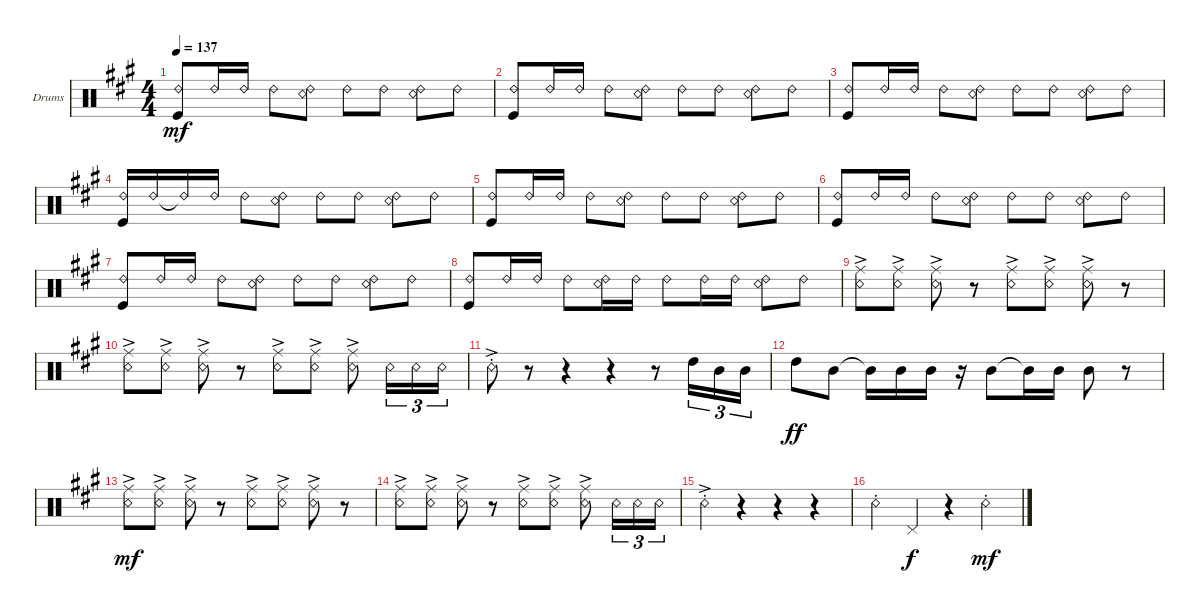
\defaultSystemsLayout 4
\bracketExtendMode groupsimilarinstruments
\firstSystemTrackNameOrientation horizontal
\otherSystemsTrackNameOrientation horizontal
\track ("Drums" "Drums") {instrument percussion}
\staff {score}
\articulation defaults
\ts (4 4)
\tempo 137
\clef neutral
\scale
0.333333
\ks a
("Kick (hit)" "Ride (bell) 2").8{dy mf} "Ride (bell) 2".16 "Ride (bell) 2".16 "Ride (bell) 2".8 ("Snare (rim shot)" "Ride (bell) 2").8 "Ride (bell) 2".8 "Ride (bell) 2".8 ("Snare (rim shot)" "Ride (bell) 2").8 "Ride (bell) 2".8 |
\scale
0.333333 ("Kick (hit)" "Ride (bell) 2").8 "Ride (bell) 2".16 "Ride (bell) 2".16 "Ride (bell) 2".8 ("Snare (rim shot)" "Ride (bell) 2").8 "Ride (bell) 2".8 "Ride (bell) 2".8 ("Snare (rim shot)" "Ride (bell) 2").8 "Ride (bell) 2".8 |
\scale
0.333333 ("Kick (hit)" "Ride (bell) 2").8 "Ride (bell) 2".16 "Ride (bell) 2".16 "Ride (bell) 2".8 ("Snare (rim shot)" "Ride (bell) 2").8 "Ride (bell) 2".8 "Ride (bell) 2".8 ("Snare (rim shot)" "Ride (bell) 2").8 "Ride (bell) 2".8 |
\scale
0.333333 ("Kick (hit)" "Ride (bell) 2").16 "Ride (bell) 2".16 "Ride (bell) 2"{t}.16 "Ride (bell) 2".16 "Ride (bell) 2".8 ("Snare (rim shot)" "Ride (bell) 2").8 "Ride (bell) 2".8 "Ride (bell) 2".8 ("Snare (rim shot)" "Ride (bell) 2").8 "Ride (bell) 2".8 |
\scale
0.333333 ("Kick (hit)" "Ride (bell) 2").8 "Ride (bell) 2".16 "Ride (bell) 2".16 "Ride (bell) 2".8 ("Snare (rim shot)" "Ride (bell) 2").8 "Ride (bell) 2".8 "Ride (bell) 2".8 ("Snare (rim shot)" "Ride (bell) 2").8 "Ride (bell) 2".8 |
\scale
0.333333 ("Kick (hit)" "Ride (bell) 2").8 "Ride (bell) 2".16 "Ride (bell) 2".16 "Ride (bell) 2".8 ("Snare (rim shot)" "Ride (bell) 2").8 "Ride (bell) 2".8 "Ride (bell) 2".8 ("Snare (rim shot)" "Ride (bell) 2").8 "Ride (bell) 2".8 |
\scale
0.333333 ("Kick (hit)" "Ride (bell) 2").8 "Ride (bell) 2".16 "Ride (bell) 2".16 "Ride (bell) 2".8 ("Snare (rim shot)" "Ride (bell) 2").8 "Ride (bell) 2".8 "Ride (bell) 2".8 ("Snare (rim shot)" "Ride (bell) 2").8 "Ride (bell) 2".8 |
\scale
0.333333 ("Kick (hit)" "Ride (bell) 2").8 "Ride (bell) 2".16 "Ride (bell) 2".16 "Ride (bell) 2".8 ("Snare (rim shot)" "Ride (bell) 2").16 "Ride (bell) 2".16 "Ride (bell) 2".8 "Ride (bell) 2".16 "Ride (bell) 2".16 ("Snare (rim shot)" "Ride (bell) 2").8 "Ride (bell) 2".8 |
\scale
0.333333 ("Snare (rim shot)"{ac} "Ride (middle)"{ac}).8 ("Snare (rim shot)"{ac} "Ride (middle)"{ac}).8 ("Snare (rim shot)"{ac} "Ride (middle)"{ac}).8 r.8 ("Snare (rim shot)"{ac} "Ride (middle)"{ac}).8 ("Snare (rim shot)"{ac} "Ride (middle)"{ac}).8 ("Snare (rim shot)"{ac} "Ride (middle)"{ac}).8 r.8 |
\scale
0.333333 ("Snare (rim shot)"{ac} "Ride (middle)"{ac}).8 ("Snare (rim shot)"{ac} "Ride (middle)"{ac}).8 ("Snare (rim shot)"{ac} "Ride (middle)"{ac}).8 r.8 ("Snare (rim shot)"{ac} "Ride (middle)"{ac}).8 ("Snare (rim shot)"{ac} "Ride (middle)"{ac}).8 ("Snare (rim shot)"{ac} "Ride (middle)"{ac}).8 "Snare (rim shot)".16{tu (3 2)} "Snare (rim shot)".16{tu (3 2)} "Snare (rim shot)".16{tu (3 2)} |
\scale
0.333333 "Snare (rim shot)"{ac st}.8 r.8 r.4 r.4 r.8 "High Tom (hit)".16{tu (3 2)} "Mid Tom (hit)".16{tu (3 2)} "Mid Tom (hit)".16{tu (3 2)} |
\scale
0.333333 "High Tom (hit)".8{dy ff} "Mid Tom (hit)".8 "Mid Tom (hit)"{t}.16 "Mid Tom (hit)".16 "Mid Tom (hit)".16 r.16 "Mid Tom (hit)".8 "Mid Tom (hit)"{t}.16 "Mid Tom (hit)".16 "Mid Tom (hit)".8 r.8 |
\scale
0.333333 ("Snare (rim shot)"{ac} "Ride (middle)"{ac}).8{dy mf} ("Snare (rim shot)"{ac} "Ride (middle)"{ac}).8 ("Snare (rim shot)"{ac} "Ride (middle)"{ac}).8 r.8 ("Snare (rim shot)"{ac} "Ride (middle)"{ac}).8 ("Snare (rim shot)"{ac} "Ride (middle)"{ac}).8 ("Snare (rim shot)"{ac} "Ride (middle)"{ac}).8 r.8 |
\scale
0.333333 ("Snare (rim shot)"{ac} "Ride (middle)"{ac}).8 ("Snare (rim shot)"{ac} "Ride (middle)"{ac}).8 ("Snare (rim shot)"{ac} "Ride (middle)"{ac}).8 r.8 ("Snare (rim shot)"{ac} "Ride (middle)"{ac}).8 ("Snare (rim shot)"{ac} "Ride (middle)"{ac}).8 ("Snare (rim shot)"{ac} "Ride (middle)"{ac}).8 "Snare (rim shot)".16{tu (3 2)} "Snare (rim shot)".16{tu (3 2)} "Snare (rim shot)".16{tu (3 2)} |
\scale
0.333333 "Snare (rim shot)"{ac st}.4 r.4 r.4 r.4 |
\scale
0.333333 "Snare (rim shot)"{st}.4 "Pedal Hi-Hat (hit)".4{dy f} r.4 "Snare (rim shot)"{st}.4{dy mf}
